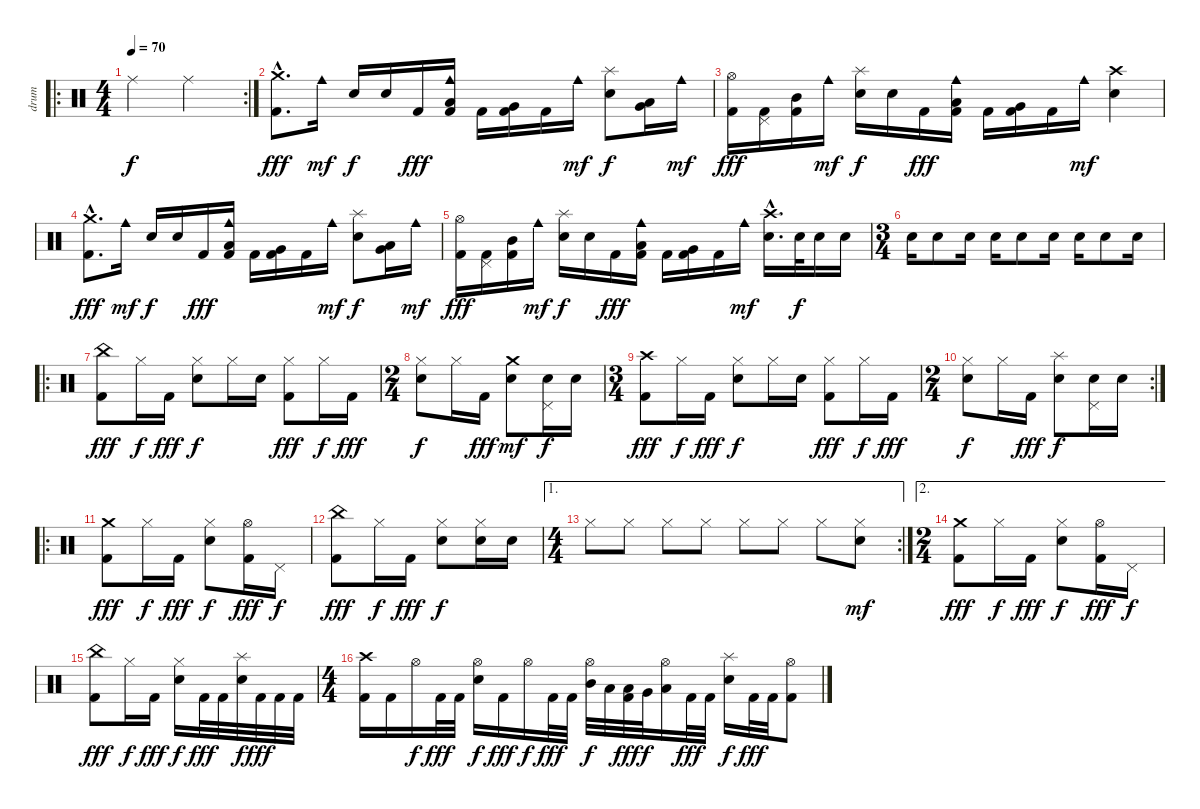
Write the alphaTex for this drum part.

\track ("drum" "drum") {instrument percussion}
\staff {score}
\articulation defaults
\ro
\rc 2
\ts (4 4)
\tempo 70
\clef neutral
\ks c "Ride (middle)".2{dy f} "Ride (middle)".2
|
("Crash medium (hit)"{hac} "Kick (hit) 2"{hac}).8{d dy fff} "Cowbell medium (hit)".16{dy mf} "Electric Snare (hit)".16{dy f} "Electric Snare (hit)".16 "Kick (hit) 2".16{dy fff} ("Cowbell medium (hit)" "Low Tom (hit)" "Kick (hit) 2").16 "Kick (hit) 2".16 ("Very Low Tom (hit)" "Kick (hit) 2").16 "Kick (hit) 2".16 "Cowbell medium (hit)".16{dy mf} ("Splash (hit)" "Electric Snare (hit)").8{dy f} ("Low Tom (hit)" "Very Low Tom (hit)").16 "Cowbell medium (hit)".16{dy mf} |
("Hi-Hat (open)" "Kick (hit) 2").16{dy fff} ("Pedal Hi-Hat (hit)" "Kick (hit) 2").16 ("Mid Tom (hit)" "Kick (hit) 2").16 "Cowbell medium (hit)".16{dy mf} ("Splash (hit)" "Electric Snare (hit)").16{dy f} "Electric Snare (hit)".16 "Kick (hit) 2".16{dy fff} ("Cowbell medium (hit)" "Low Tom (hit)" "Kick (hit) 2").16 "Kick (hit) 2".16 ("Very Low Tom (hit)" "Kick (hit) 2").16 "Kick (hit) 2".16 "Cowbell medium (hit)".16{dy mf} ("Crash high (hit)" "Electric Snare (hit)").4 |
("Crash medium (hit)"{hac} "Kick (hit) 2"{hac}).8{d dy fff} "Cowbell medium (hit)".16{dy mf} "Electric Snare (hit)".16{dy f} "Electric Snare (hit)".16 "Kick (hit) 2".16{dy fff} ("Cowbell medium (hit)" "Low Tom (hit)" "Kick (hit) 2").16 "Kick (hit) 2".16 ("Very Low Tom (hit)" "Kick (hit) 2").16 "Kick (hit) 2".16 "Cowbell medium (hit)".16{dy mf} ("Splash (hit)" "Electric Snare (hit)").8{dy f} ("Low Tom (hit)" "Very Low Tom (hit)").16 "Cowbell medium (hit)".16{dy mf} |
("Hi-Hat (open)" "Kick (hit) 2").16{dy fff} ("Pedal Hi-Hat (hit)" "Kick (hit) 2").16 ("Mid Tom (hit)" "Kick (hit) 2").16 "Cowbell medium (hit)".16{dy mf} ("Splash (hit)" "Electric Snare (hit)").16{dy f} "Electric Snare (hit)".16 "Kick (hit) 2".16{dy fff} ("Cowbell medium (hit)" "Low Tom (hit)" "Kick (hit) 2").16 "Kick (hit) 2".16 ("Very Low Tom (hit)" "Kick (hit) 2").16 "Kick (hit) 2".16 "Cowbell medium (hit)".16{dy mf} ("Crash high (hit)"{hac} "Electric Snare (hit)"{hac}).16{d} "Electric Snare (hit)".32{dy f} "Electric Snare (hit)".16 "Electric Snare (hit)".16 |
\ts (3 4)
"Electric Snare (hit)".16 "Electric Snare (hit)".8 "Electric Snare (hit)".16 "Electric Snare (hit)".16 "Electric Snare (hit)".8 "Electric Snare (hit)".16 "Electric Snare (hit)".16 "Electric Snare (hit)".8 "Electric Snare (hit)".16 |
\ro
("China (hit)" "Kick (hit) 2").8{dy fff} "Hi-Hat (closed)".16{dy f} "Kick (hit) 2".16{dy fff} ("Hi-Hat (closed)" "Electric Snare (hit)").8{dy f} "Hi-Hat (closed)".16 "Electric Snare (hit)".16 ("Hi-Hat (closed)" "Kick (hit) 2").8{dy fff} "Hi-Hat (closed)".16{dy f} "Kick (hit) 2".16{dy fff} |
\ts (2 4)
("Hi-Hat (closed)" "Electric Snare (hit)").8{dy f} "Hi-Hat (closed)".16 "Kick (hit) 2".16{dy fff} ("Crash medium (hit)" "Electric Snare (hit)").8{dy mf} ("Pedal Hi-Hat (hit)" "Electric Snare (hit)").16{dy f} "Electric Snare (hit)".16 |
\ts (3 4)
("Crash high (hit)" "Kick (hit) 2").8{dy fff} "Hi-Hat (closed)".16{dy f} "Kick (hit) 2".16{dy fff} ("Hi-Hat (closed)" "Electric Snare (hit)").8{dy f} "Hi-Hat (closed)".16 "Electric Snare (hit)".16 ("Hi-Hat (closed)" "Kick (hit) 2").8{dy fff} "Hi-Hat (closed)".16{dy f} "Kick (hit) 2".16{dy fff} |
\rc 2
\ts (2 4)
("Hi-Hat (closed)" "Electric Snare (hit)").8{dy f} "Hi-Hat (closed)".16 "Kick (hit) 2".16{dy fff} ("Splash (hit)" "Electric Snare (hit)").8{dy f} ("Pedal Hi-Hat (hit)" "Electric Snare (hit)").16 "Electric Snare (hit)".16 |
\ro
("Crash medium (hit)" "Kick (hit) 2").8{dy fff} "Hi-Hat (closed)".16{dy f} "Kick (hit) 2".16{dy fff} ("Hi-Hat (closed)" "Electric Snare (hit)").8{dy f} ("Hi-Hat (open)" "Kick (hit) 2").16{dy fff} "Pedal Hi-Hat (hit)".16{dy f} |
("China (hit)" "Kick (hit) 2").8{dy fff} "Hi-Hat (closed)".16{dy f} "Kick (hit) 2".16{dy fff} ("Hi-Hat (closed)" "Electric Snare (hit)").8{dy f} ("Hi-Hat (closed)" "Electric Snare (hit)").16 "Electric Snare (hit)".16 |
\ae 1
\rc 2
\ts (4 4)
"Hi-Hat (closed)".8 "Hi-Hat (closed)".8 "Hi-Hat (closed)".8 "Hi-Hat (closed)".8 "Hi-Hat (closed)".8 "Hi-Hat (closed)".8 "Hi-Hat (closed)".8 ("Hi-Hat (closed)" "Electric Snare (hit)").8{dy mf} |
\ae 2
\ts (2 4)
("Crash medium (hit)" "Kick (hit) 2").8{dy fff} "Hi-Hat (closed)".16{dy f} "Kick (hit) 2".16{dy fff} ("Hi-Hat (closed)" "Electric Snare (hit)").8{dy f} ("Hi-Hat (open)" "Kick (hit) 2").16{dy fff} "Pedal Hi-Hat (hit)".16{dy f} |
("China (hit)" "Kick (hit) 2").8{dy fff} "Hi-Hat (closed)".16{dy f} "Kick (hit) 2".16{dy fff} ("Hi-Hat (closed)" "Electric Snare (hit)").16{dy f} "Kick (hit) 2".32{dy fff} "Kick (hit) 2".32 ("Splash (hit)" "Electric Snare (hit)").32{dy f} "Kick (hit) 2".32{dy fff} "Kick (hit) 2".32 "Kick (hit) 2".32 |
\ts (4 4)
("Crash high (hit)" "Kick (hit) 2").16 "Kick (hit) 2".16 "Hi-Hat (open)".16{dy f} "Kick (hit) 2".32{dy fff} "Kick (hit) 2".32 ("Hi-Hat (open)" "Electric Snare (hit)").16{dy f} "Kick (hit) 2".16{dy fff} "Hi-Hat (open)".16{dy f} "Kick (hit) 2".32{dy fff} "Kick (hit) 2".32 ("Hi-Hat (open)" "Mid Tom (hit)").32{dy f} "Low Tom (hit)".32 ("Low Tom (hit)" "Kick (hit) 2").32{dy fff} "Very Low Tom (hit)".32{dy f} ("Hi-Hat (open)" "Low Floor Tom (hit)").16 "Kick (hit) 2".32{dy fff} "Kick (hit) 2".32 ("Splash (hit)" "Electric Snare (hit)").16{dy f} "Kick (hit) 2".32{dy fff} "Kick (hit) 2".32 ("Hi-Hat (open)" "Kick (hit) 2").8
